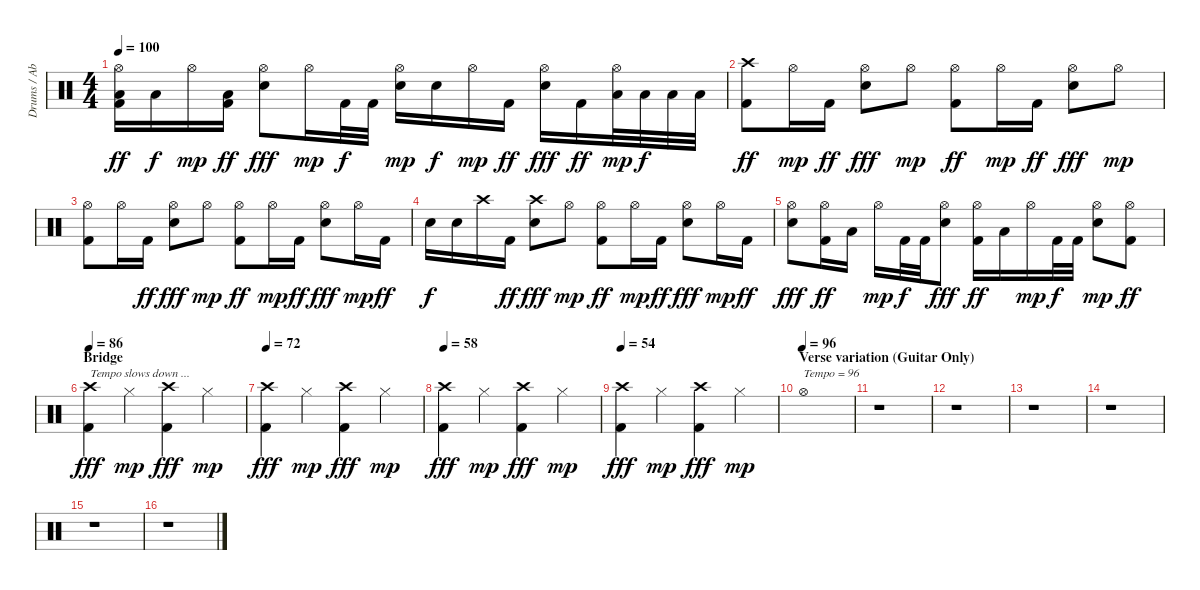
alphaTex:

\track ("Drums / Abe Cunningham" "Drums / Ab") {instrument percussion}
\staff {score}
\articulation defaults
\ts (4 4)
\tempo 100
\clef neutral
\ks c
("Hi-Hat (open)" "Low Tom (hit)" "Kick (hit) 2").16{dy ff} "Low Tom (hit)".16{dy f} "Hi-Hat (open)".16{dy mp} ("Low Tom (hit)" "Kick (hit) 2").16{dy ff} ("Hi-Hat (open)" "Electric Snare (hit)").8{dy fff} "Hi-Hat (open)".16{dy mp} "Kick (hit) 2".32{dy f} "Kick (hit) 2".32 ("Hi-Hat (open)" "Electric Snare (hit)").16{dy mp} "Electric Snare (hit)".16{dy f} "Hi-Hat (open)".16{dy mp} "Kick (hit) 2".16{dy ff} ("Hi-Hat (open)" "Electric Snare (hit)").16{dy fff} "Kick (hit) 2".16{dy ff} ("Hi-Hat (open)" "Low Tom (hit)").32{dy mp} "Low Tom (hit)".32{dy f} "Low Tom (hit)".32 "Low Tom (hit)".32 |
("Crash high (hit)" "Kick (hit) 2").8{dy ff} "Hi-Hat (open)".16{dy mp} "Kick (hit) 2".16{dy ff} ("Hi-Hat (open)" "Electric Snare (hit)").8{dy fff} "Hi-Hat (open)".8{dy mp} ("Hi-Hat (open)" "Kick (hit) 2").8{dy ff} "Hi-Hat (open)".16{dy mp} "Kick (hit) 2".16{dy ff} ("Hi-Hat (open)" "Electric Snare (hit)").8{dy fff} "Hi-Hat (open)".8{dy mp} |
("Hi-Hat (open)" "Kick (hit) 2").8 "Hi-Hat (open)".16 "Kick (hit) 2".16{dy ff} ("Hi-Hat (open)" "Electric Snare (hit)").8{dy fff} "Hi-Hat (open)".8{dy mp} ("Hi-Hat (open)" "Kick (hit) 2").8{dy ff} "Hi-Hat (open)".16{dy mp} "Kick (hit) 2".16{dy ff} ("Hi-Hat (open)" "Electric Snare (hit)").8{dy fff} "Hi-Hat (open)".16{dy mp} "Kick (hit) 2".16{dy ff} |
"Electric Snare (hit)".16{dy f} "Electric Snare (hit)".16 "Crash high (hit)".16 "Kick (hit) 2".16{dy ff} ("Crash high (hit)" "Electric Snare (hit)").8{dy fff} "Hi-Hat (open)".8{dy mp} ("Hi-Hat (open)" "Kick (hit) 2").8{dy ff} "Hi-Hat (open)".16{dy mp} "Kick (hit) 2".16{dy ff} ("Hi-Hat (open)" "Electric Snare (hit)").8{dy fff} "Hi-Hat (open)".16{dy mp} "Kick (hit) 2".16{dy ff} |
("Hi-Hat (open)" "Electric Snare (hit)").8{dy fff} ("Hi-Hat (open)" "Kick (hit) 2").16{dy ff} "Low Tom (hit)".16 "Hi-Hat (open)".16{dy mp} "Kick (hit) 2".32{dy f} "Kick (hit) 2".32 ("Hi-Hat (open)" "Electric Snare (hit)").8{dy fff} ("Hi-Hat (open)" "Kick (hit) 2").16{dy ff} "Low Tom (hit)".16 "Hi-Hat (open)".16{dy mp} "Kick (hit) 2".32{dy f} "Kick (hit) 2".32 ("Hi-Hat (open)" "Electric Snare (hit)").8{dy mp} ("Hi-Hat (open)" "Kick (hit) 2").8{dy ff} |
\section ("" "Bridge")
\tempo 86
("Crash high (hit)" "Kick (hit) 2").4{txt "Tempo slows down ..." dy fff} "Hi-Hat (closed)".4{dy mp} ("Crash high (hit)" "Kick (hit) 2").4{dy fff} "Hi-Hat (closed)".4{dy mp} |
\tempo 72
("Crash high (hit)" "Kick (hit) 2").4{dy fff} "Hi-Hat (closed)".4{dy mp} ("Crash high (hit)" "Kick (hit) 2").4{dy fff} "Hi-Hat (closed)".4{dy mp} |
\tempo 58
("Crash high (hit)" "Kick (hit) 2").4{dy fff} "Hi-Hat (closed)".4{dy mp} ("Crash high (hit)" "Kick (hit) 2").4{dy fff} "Hi-Hat (closed)".4{dy mp} |
\tempo 54
("Crash high (hit)" "Kick (hit) 2").4{dy fff} "Hi-Hat (closed)".4{dy mp} ("Crash high (hit)" "Kick (hit) 2").4{dy fff} "Hi-Hat (closed)".4{dy mp} |
\section ("" "Verse variation (Guitar Only)")
\tempo (96)
"Hi-Hat (open)".1{txt "Tempo = 96"} |
r.1 |
r.1 |
r.1 |
r.1 |
r.1 |
r.1
